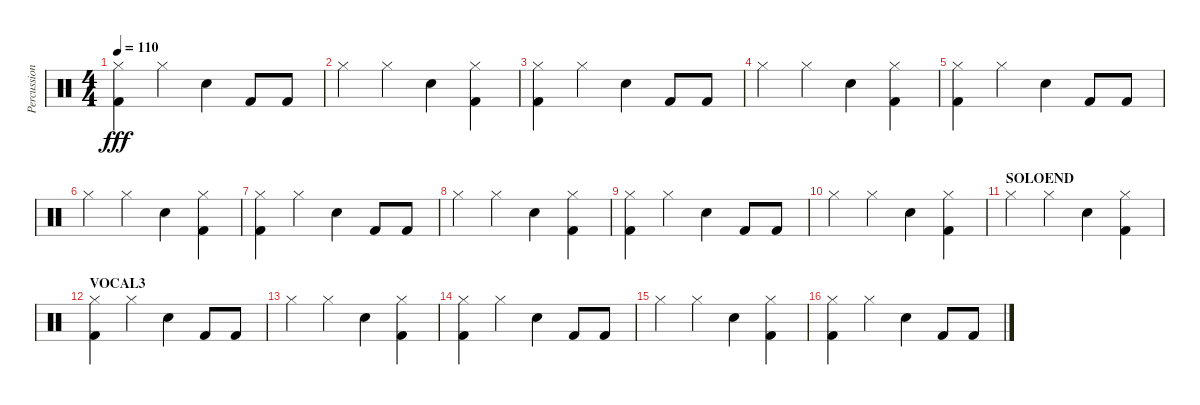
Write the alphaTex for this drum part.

\track ("Percussion" "Percussion") {instrument percussion}
\staff {score}
\articulation defaults
\ts (4 4)
\tempo 110
\clef neutral
\ks c
("Kick (hit) 2" "Hi-Hat (closed)").4{dy fff} "Hi-Hat (closed)".4 "Electric Snare (hit)".4 "Kick (hit) 2".8 "Kick (hit) 2".8 |
"Hi-Hat (closed)".4 "Hi-Hat (closed)".4 "Electric Snare (hit)".4 ("Kick (hit) 2" "Hi-Hat (closed)").4 |
("Kick (hit) 2" "Hi-Hat (closed)").4 "Hi-Hat (closed)".4 "Electric Snare (hit)".4 "Kick (hit) 2".8 "Kick (hit) 2".8 |
"Hi-Hat (closed)".4 "Hi-Hat (closed)".4 "Electric Snare (hit)".4 ("Kick (hit) 2" "Hi-Hat (closed)").4 |
("Kick (hit) 2" "Hi-Hat (closed)").4 "Hi-Hat (closed)".4 "Electric Snare (hit)".4 "Kick (hit) 2".8 "Kick (hit) 2".8 |
"Hi-Hat (closed)".4 "Hi-Hat (closed)".4 "Electric Snare (hit)".4 ("Kick (hit) 2" "Hi-Hat (closed)").4 |
("Kick (hit) 2" "Hi-Hat (closed)").4 "Hi-Hat (closed)".4 "Electric Snare (hit)".4 "Kick (hit) 2".8 "Kick (hit) 2".8 |
"Hi-Hat (closed)".4 "Hi-Hat (closed)".4 "Electric Snare (hit)".4 ("Kick (hit) 2" "Hi-Hat (closed)").4 |
("Kick (hit) 2" "Hi-Hat (closed)").4 "Hi-Hat (closed)".4 "Electric Snare (hit)".4 "Kick (hit) 2".8 "Kick (hit) 2".8 |
"Hi-Hat (closed)".4 "Hi-Hat (closed)".4 "Electric Snare (hit)".4 ("Kick (hit) 2" "Hi-Hat (closed)").4 |
\section ("" "SOLOEND")
"Hi-Hat (closed)".4 "Hi-Hat (closed)".4 "Electric Snare (hit)".4 ("Kick (hit) 2" "Hi-Hat (closed)").4 |
\section ("" "VOCAL3")
("Kick (hit) 2" "Hi-Hat (closed)").4 "Hi-Hat (closed)".4 "Electric Snare (hit)".4 "Kick (hit) 2".8 "Kick (hit) 2".8 |
"Hi-Hat (closed)".4 "Hi-Hat (closed)".4 "Electric Snare (hit)".4 ("Kick (hit) 2" "Hi-Hat (closed)").4 |
("Kick (hit) 2" "Hi-Hat (closed)").4 "Hi-Hat (closed)".4 "Electric Snare (hit)".4 "Kick (hit) 2".8 "Kick (hit) 2".8 |
"Hi-Hat (closed)".4 "Hi-Hat (closed)".4 "Electric Snare (hit)".4 ("Kick (hit) 2" "Hi-Hat (closed)").4 |
("Kick (hit) 2" "Hi-Hat (closed)").4 "Hi-Hat (closed)".4 "Electric Snare (hit)".4 "Kick (hit) 2".8 "Kick (hit) 2".8
